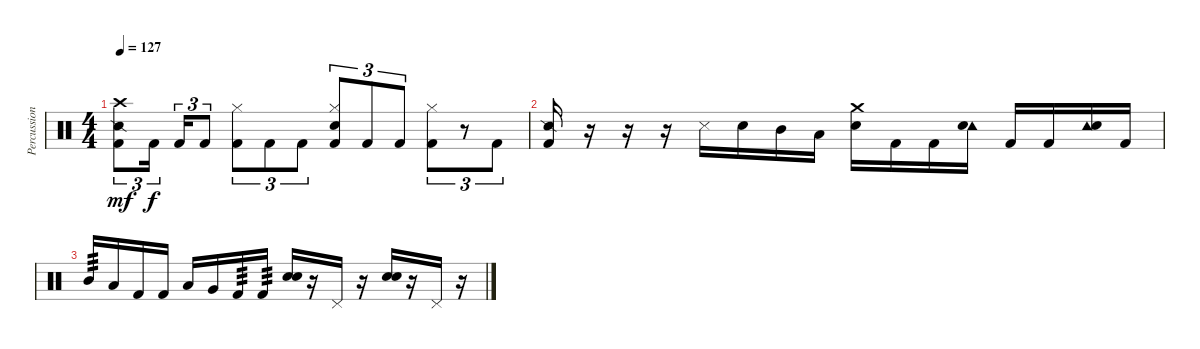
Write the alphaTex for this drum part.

\track ("Percussion" "Percussion") {instrument percussion}
\staff {score}
\articulation defaults
\ts (4 4)
\tempo 127
\clef neutral
\ks c
("Crash high (hit)" "Snare (side stick) 2" "Kick (hit) 2").8{tu (3 2) dy mf} "Kick (hit) 2".16{tu (3 2) dy f beam splitsecondary} "Kick (hit) 2".16{tu (3 2)} "Kick (hit) 2".8{tu (3 2)} ("Hi-Hat (closed)" "Kick (hit) 2").8{tu (3 2)} "Kick (hit) 2".8{tu (3 2)} "Kick (hit) 2".8{tu (3 2)} ("Hi-Hat (closed)" "Snare (hit) 2" "Kick (hit) 2").8{tu (3 2)} "Kick (hit) 2".8{tu (3 2)} "Kick (hit) 2".8{tu (3 2)} ("Hi-Hat (closed)" "Kick (hit) 2").8{tu (3 2)} r.8{tu (3 2)} "Kick (hit) 2".8{tu (3 2)} |
("Snare (side stick) 2" "Kick (hit) 2").16 r.16 r.16 r.16 "Metronome (hit)".16 "Snare (hit) 2".16 "Mid Tom (hit)".16 "Low Floor Tom (hit)".16 ("Crash medium (hit)" "Snare (hit) 2").16 "Kick (hit) 2".16 "Kick (hit) 2".16 ("Tambourine (hit)" "Snare (hit) 2").16 "Kick (hit) 2".16 "Kick (hit) 2".16 ("Tambourine (hit)" "Snare (hit) 2").16 "Kick (hit) 2".16 |
"Mid Tom (hit)".16{tp 3} "Low Tom (hit)".16 "Kick (hit) 2".16 "Kick (hit) 2".16 "Low Tom (hit)".16 "Very Low Tom (hit)".16 "Kick (hit) 2".16{tp 3} "Kick (hit) 2".16{tp 3} ("Snare (hit)" "Snare (hit) 2").16 r.16 "Pedal Hi-Hat (hit)".16 r.16 ("Snare (hit)" "Snare (hit) 2").16 r.16 "Pedal Hi-Hat (hit)".16 r.16
